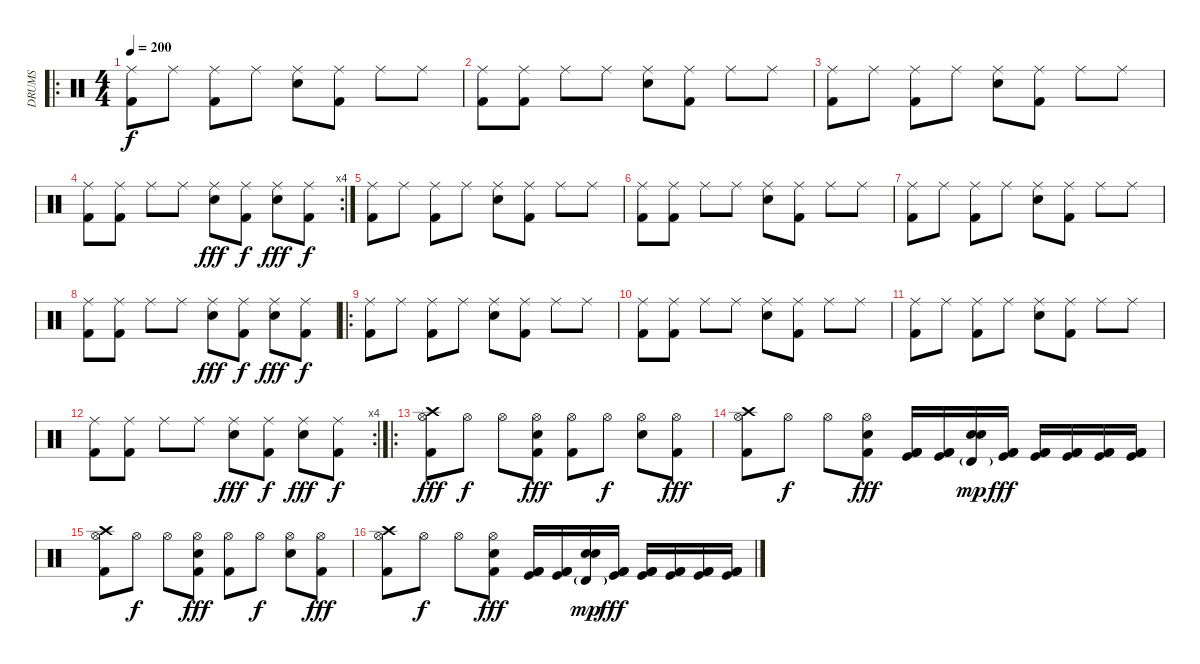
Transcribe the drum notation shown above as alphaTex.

\track ("DRUMS" "DRUMS") {instrument percussion}
\staff {score}
\articulation defaults
\ro
\ts (4 4)
\tempo 200
\clef neutral
\ks c
("Ride (middle)" "Kick (hit) 2").8{dy f} "Ride (middle)".8 ("Ride (middle)" "Kick (hit) 2").8 "Ride (middle)".8 ("Ride (middle)" "Snare (hit) 2").8 ("Ride (middle)" "Kick (hit) 2").8 "Ride (middle)".8 "Ride (middle)".8 |
("Ride (middle)" "Kick (hit) 2").8 ("Ride (middle)" "Kick (hit) 2").8 "Ride (middle)".8 "Ride (middle)".8 ("Ride (middle)" "Snare (hit) 2").8 ("Ride (middle)" "Kick (hit) 2").8 "Ride (middle)".8 "Ride (middle)".8 |
("Ride (middle)" "Kick (hit) 2").8 "Ride (middle)".8 ("Ride (middle)" "Kick (hit) 2").8 "Ride (middle)".8 ("Ride (middle)" "Snare (hit) 2").8 ("Ride (middle)" "Kick (hit) 2").8 "Ride (middle)".8 "Ride (middle)".8 |
\rc 4
("Ride (middle)" "Kick (hit) 2").8 ("Ride (middle)" "Kick (hit) 2").8 "Ride (middle)".8 "Ride (middle)".8 ("Ride (middle)" "Snare (hit) 2").8{dy fff} ("Ride (middle)" "Kick (hit) 2").8{dy f} ("Ride (middle)" "Snare (hit) 2").8{dy fff} ("Ride (middle)" "Kick (hit) 2").8{dy f} |
("Ride (middle)" "Kick (hit) 2").8 "Ride (middle)".8 ("Ride (middle)" "Kick (hit) 2").8 "Ride (middle)".8 ("Ride (middle)" "Snare (hit) 2").8 ("Ride (middle)" "Kick (hit) 2").8 "Ride (middle)".8 "Ride (middle)".8 |
("Ride (middle)" "Kick (hit) 2").8 ("Ride (middle)" "Kick (hit) 2").8 "Ride (middle)".8 "Ride (middle)".8 ("Ride (middle)" "Snare (hit) 2").8 ("Ride (middle)" "Kick (hit) 2").8 "Ride (middle)".8 "Ride (middle)".8 |
("Ride (middle)" "Kick (hit) 2").8 "Ride (middle)".8 ("Ride (middle)" "Kick (hit) 2").8 "Ride (middle)".8 ("Ride (middle)" "Snare (hit) 2").8 ("Ride (middle)" "Kick (hit) 2").8 "Ride (middle)".8 "Ride (middle)".8 |
("Ride (middle)" "Kick (hit) 2").8 ("Ride (middle)" "Kick (hit) 2").8 "Ride (middle)".8 "Ride (middle)".8 ("Ride (middle)" "Snare (hit) 2").8{dy fff} ("Ride (middle)" "Kick (hit) 2").8{dy f} ("Ride (middle)" "Snare (hit) 2").8{dy fff} ("Ride (middle)" "Kick (hit) 2").8{dy f} |
\ro
("Ride (middle)" "Kick (hit) 2").8 "Ride (middle)".8 ("Ride (middle)" "Kick (hit) 2").8 "Ride (middle)".8 ("Ride (middle)" "Snare (hit) 2").8 ("Ride (middle)" "Kick (hit) 2").8 "Ride (middle)".8 "Ride (middle)".8 |
("Ride (middle)" "Kick (hit) 2").8 ("Ride (middle)" "Kick (hit) 2").8 "Ride (middle)".8 "Ride (middle)".8 ("Ride (middle)" "Snare (hit) 2").8 ("Ride (middle)" "Kick (hit) 2").8 "Ride (middle)".8 "Ride (middle)".8 |
("Ride (middle)" "Kick (hit) 2").8 "Ride (middle)".8 ("Ride (middle)" "Kick (hit) 2").8 "Ride (middle)".8 ("Ride (middle)" "Snare (hit) 2").8 ("Ride (middle)" "Kick (hit) 2").8 "Ride (middle)".8 "Ride (middle)".8 |
\rc 4
("Ride (middle)" "Kick (hit) 2").8 ("Ride (middle)" "Kick (hit) 2").8 "Ride (middle)".8 "Ride (middle)".8 ("Ride (middle)" "Snare (hit) 2").8{dy fff} ("Ride (middle)" "Kick (hit) 2").8{dy f} ("Ride (middle)" "Snare (hit) 2").8{dy fff} ("Ride (middle)" "Kick (hit) 2").8{dy f} |
\ro
("Hi-Hat (open)" "Crash high (hit)" "Kick (hit) 2").8{dy fff} "Hi-Hat (open)".8{dy f} "Hi-Hat (open)".8 ("Hi-Hat (open)" "Electric Snare (hit)" "Kick (hit) 2").8{dy fff} ("Hi-Hat (open)" "Kick (hit) 2").8 "Hi-Hat (open)".8{dy f} ("Hi-Hat (open)" "Electric Snare (hit)").8 ("Hi-Hat (open)" "Kick (hit) 2").8{dy fff} |
("Hi-Hat (open)" "Crash high (hit)" "Kick (hit) 2").8 "Hi-Hat (open)".8{dy f} "Hi-Hat (open)".8 ("Hi-Hat (open)" "Electric Snare (hit)" "Kick (hit) 2").8{dy fff} ("Kick (hit)" "Kick (hit) 2" "Kick (hit) 2").16 ("Kick (hit)" "Kick (hit) 2" "Kick (hit) 2").16 ("Snare (hit) 2" "Timbale high (hit)"{g} "Electric Snare (hit)").16{dy mp} ("Kick (hit)" "Kick (hit) 2" "Kick (hit) 2").16{dy fff} ("Kick (hit)" "Kick (hit) 2" "Kick (hit) 2").16 ("Kick (hit)" "Kick (hit) 2" "Kick (hit) 2").16 ("Kick (hit)" "Kick (hit) 2" "Kick (hit) 2").16 ("Kick (hit)" "Kick (hit) 2" "Kick (hit) 2").16 |
("Hi-Hat (open)" "Crash high (hit)" "Kick (hit) 2").8 "Hi-Hat (open)".8{dy f} "Hi-Hat (open)".8 ("Hi-Hat (open)" "Electric Snare (hit)" "Kick (hit) 2").8{dy fff} ("Hi-Hat (open)" "Kick (hit) 2").8 "Hi-Hat (open)".8{dy f} ("Hi-Hat (open)" "Electric Snare (hit)").8 ("Hi-Hat (open)" "Kick (hit) 2").8{dy fff} |
("Hi-Hat (open)" "Crash high (hit)" "Kick (hit) 2").8 "Hi-Hat (open)".8{dy f} "Hi-Hat (open)".8 ("Hi-Hat (open)" "Electric Snare (hit)" "Kick (hit) 2").8{dy fff} ("Kick (hit)" "Kick (hit) 2" "Kick (hit) 2").16 ("Kick (hit)" "Kick (hit) 2" "Kick (hit) 2").16 ("Snare (hit) 2" "Timbale high (hit)"{g} "Electric Snare (hit)").16{dy mp} ("Kick (hit)" "Kick (hit) 2" "Kick (hit) 2").16{dy fff} ("Kick (hit)" "Kick (hit) 2" "Kick (hit) 2").16 ("Kick (hit)" "Kick (hit) 2" "Kick (hit) 2").16 ("Kick (hit)" "Kick (hit) 2" "Kick (hit) 2").16 ("Kick (hit)" "Kick (hit) 2" "Kick (hit) 2").16
